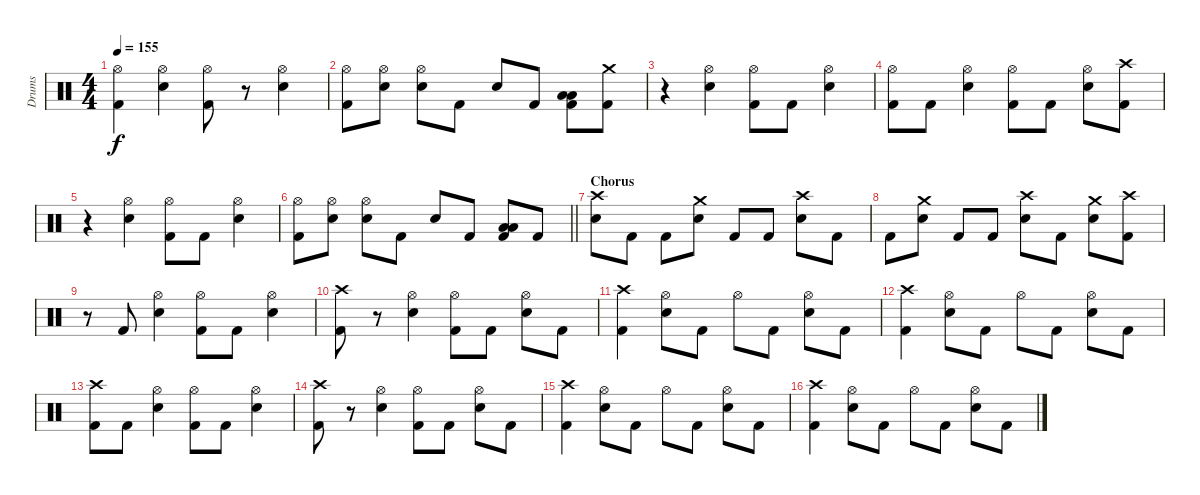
\track ("Drums" "Drums") {instrument percussion}
\staff {score}
\articulation defaults
\ts (4 4)
\tempo 155
\clef neutral
\ks c
("Hi-Hat (open)" "Kick (hit) 2").4{dy f} ("Hi-Hat (open)" "Electric Snare (hit)").4 ("Hi-Hat (open)" "Kick (hit) 2").8 r.8 ("Hi-Hat (open)" "Electric Snare (hit)").4 |
("Hi-Hat (open)" "Kick (hit) 2").8 ("Hi-Hat (open)" "Electric Snare (hit)").8 ("Hi-Hat (open)" "Electric Snare (hit)").8 "Kick (hit) 2".8 "Electric Snare (hit)".8 "Kick (hit) 2".8 ("Low Floor Tom (hit)" "Low Tom (hit)" "Kick (hit) 2").8 ("Crash medium (hit)" "Kick (hit) 2").8 |
r.4 ("Hi-Hat (open)" "Electric Snare (hit)").4 ("Hi-Hat (open)" "Kick (hit) 2").8 "Kick (hit) 2".8 ("Hi-Hat (open)" "Electric Snare (hit)").4 |
("Hi-Hat (open)" "Kick (hit) 2").8 "Kick (hit) 2".8 ("Hi-Hat (open)" "Electric Snare (hit)").4 ("Hi-Hat (open)" "Kick (hit) 2").8 "Kick (hit) 2".8 ("Hi-Hat (open)" "Electric Snare (hit)").8 ("Crash high (hit)" "Kick (hit) 2").8 |
r.4 ("Hi-Hat (open)" "Electric Snare (hit)").4 ("Hi-Hat (open)" "Kick (hit) 2").8 "Kick (hit) 2".8 ("Hi-Hat (open)" "Electric Snare (hit)").4 |
\barLineRight lightlight
("Hi-Hat (open)" "Kick (hit) 2").8 ("Hi-Hat (open)" "Electric Snare (hit)").8 ("Hi-Hat (open)" "Electric Snare (hit)").8 "Kick (hit) 2".8 "Electric Snare (hit)".8 "Kick (hit) 2".8 ("Low Floor Tom (hit)" "Low Tom (hit)" "Kick (hit) 2").8 "Kick (hit) 2".8 |
\section ("" "Chorus")
("Crash high (hit)" "Electric Snare (hit)").8 "Kick (hit) 2".8 "Kick (hit) 2".8 ("Crash medium (hit)" "Electric Snare (hit)").8 "Kick (hit) 2".8 "Kick (hit) 2".8 ("Crash high (hit)" "Electric Snare (hit)").8 "Kick (hit) 2".8 |
"Kick (hit) 2".8 ("Crash medium (hit)" "Electric Snare (hit)").8 "Kick (hit) 2".8 "Kick (hit) 2".8 ("Crash high (hit)" "Electric Snare (hit)").8 "Kick (hit) 2".8 ("Crash medium (hit)" "Electric Snare (hit)").8 ("Kick (hit) 2" "Crash high (hit)").8 |
r.8 "Kick (hit) 2".8 ("Hi-Hat (open)" "Electric Snare (hit)").4 ("Hi-Hat (open)" "Kick (hit) 2").8 "Kick (hit) 2".8 ("Hi-Hat (open)" "Electric Snare (hit)").4 |
("Crash high (hit)" "Kick (hit) 2").8 r.8 ("Hi-Hat (open)" "Electric Snare (hit)").4 ("Hi-Hat (open)" "Kick (hit) 2").8 "Kick (hit) 2".8 ("Hi-Hat (open)" "Electric Snare (hit)").8 "Kick (hit) 2".8 |
("Crash high (hit)" "Kick (hit) 2").4 ("Hi-Hat (open)" "Electric Snare (hit)").8 "Kick (hit) 2".8 "Hi-Hat (open)".8 "Kick (hit) 2".8 ("Hi-Hat (open)" "Electric Snare (hit)").8 "Kick (hit) 2".8 |
("Crash high (hit)" "Kick (hit) 2").4 ("Hi-Hat (open)" "Electric Snare (hit)").8 "Kick (hit) 2".8 "Hi-Hat (open)".8 "Kick (hit) 2".8 ("Hi-Hat (open)" "Electric Snare (hit)").8 "Kick (hit) 2".8 |
("Crash high (hit)" "Kick (hit) 2").8 "Kick (hit) 2".8 ("Hi-Hat (open)" "Electric Snare (hit)").4 ("Hi-Hat (open)" "Kick (hit) 2").8 "Kick (hit) 2".8 ("Hi-Hat (open)" "Electric Snare (hit)").4 |
("Crash high (hit)" "Kick (hit) 2").8 r.8 ("Hi-Hat (open)" "Electric Snare (hit)").4 ("Hi-Hat (open)" "Kick (hit) 2").8 "Kick (hit) 2".8 ("Hi-Hat (open)" "Electric Snare (hit)").8 "Kick (hit) 2".8 |
("Crash high (hit)" "Kick (hit) 2").4 ("Hi-Hat (open)" "Electric Snare (hit)").8 "Kick (hit) 2".8 "Hi-Hat (open)".8 "Kick (hit) 2".8 ("Hi-Hat (open)" "Electric Snare (hit)").8 "Kick (hit) 2".8 |
("Crash high (hit)" "Kick (hit) 2").4 ("Hi-Hat (open)" "Electric Snare (hit)").8 "Kick (hit) 2".8 "Hi-Hat (open)".8 "Kick (hit) 2".8 ("Hi-Hat (open)" "Electric Snare (hit)").8 "Kick (hit) 2".8
